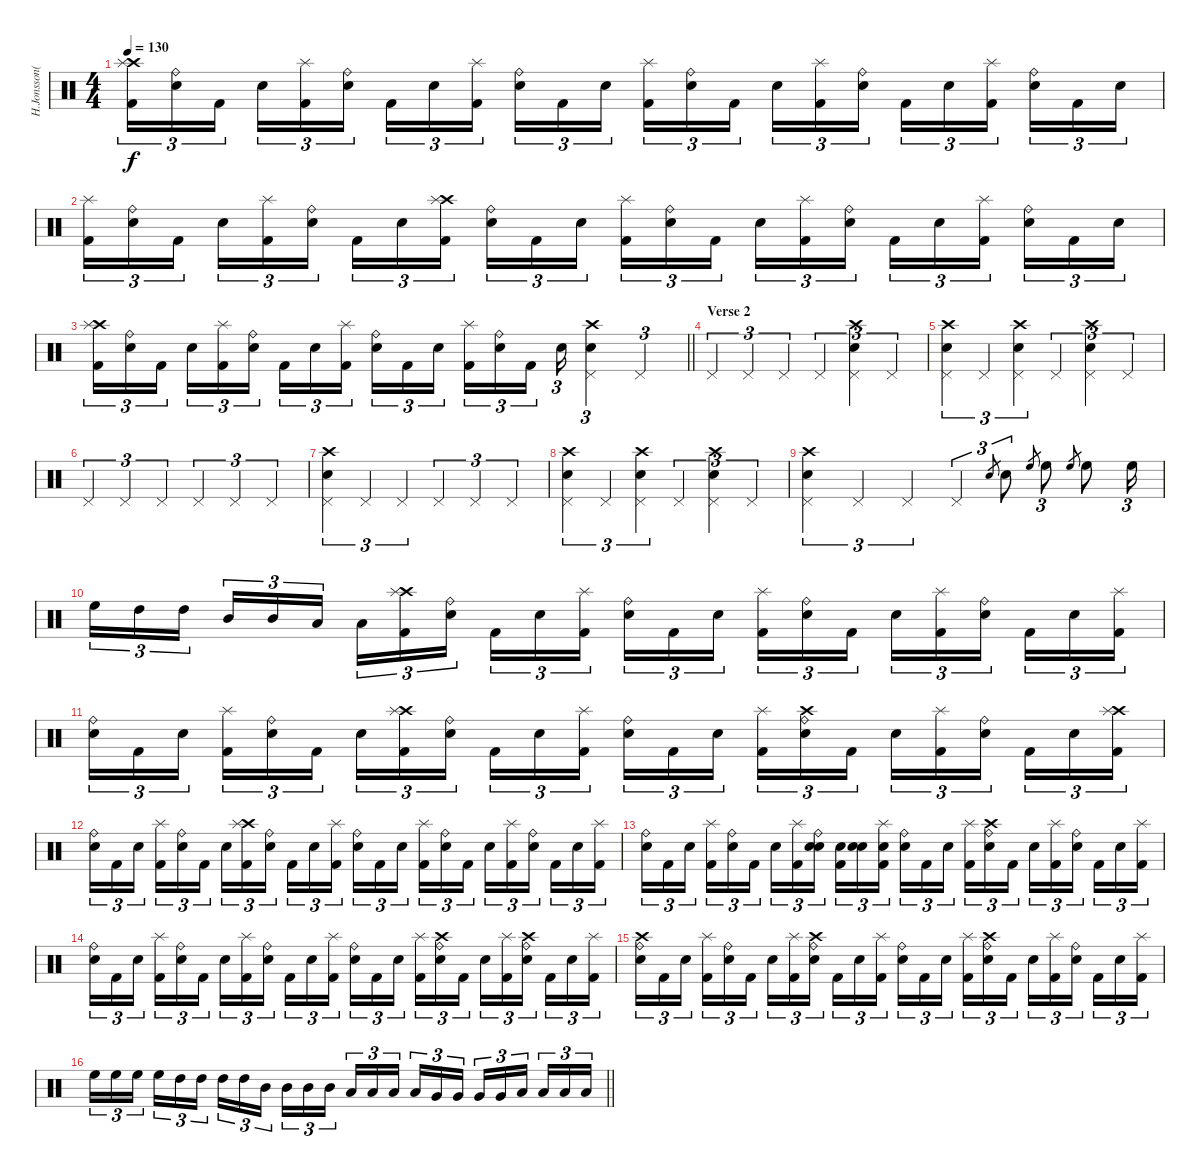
\track ("H.Jonsson(Drums)" "H.Jonsson(") {instrument percussion}
\staff {score}
\articulation defaults
\ts (4 4)
\tempo 130
\clef neutral
\ks c
("Crash high (hit)" "Splash (hit)" "Kick (hit) 2").16{tu (3 2) dy f} ("Ride (bell)" "Electric Snare (hit)").16{tu (3 2)} "Kick (hit) 2".16{tu (3 2) beam splitsecondary} "Electric Snare (hit)".16{tu (3 2)} ("Splash (hit)" "Kick (hit) 2").16{tu (3 2)} ("Ride (bell)" "Electric Snare (hit)").16{tu (3 2)} "Kick (hit) 2".16{tu (3 2)} "Electric Snare (hit)".16{tu (3 2)} ("Splash (hit)" "Kick (hit) 2").16{tu (3 2) beam splitsecondary} ("Ride (bell)" "Electric Snare (hit)").16{tu (3 2)} "Kick (hit) 2".16{tu (3 2)} "Electric Snare (hit)".16{tu (3 2)} ("Splash (hit)" "Kick (hit) 2").16{tu (3 2)} ("Ride (bell)" "Electric Snare (hit)").16{tu (3 2)} "Kick (hit) 2".16{tu (3 2) beam splitsecondary} "Electric Snare (hit)".16{tu (3 2)} ("Splash (hit)" "Kick (hit) 2").16{tu (3 2)} ("Ride (bell)" "Electric Snare (hit)").16{tu (3 2)} "Kick (hit) 2".16{tu (3 2)} "Electric Snare (hit)".16{tu (3 2)} ("Splash (hit)" "Kick (hit) 2").16{tu (3 2) beam splitsecondary} ("Ride (bell)" "Electric Snare (hit)").16{tu (3 2)} "Kick (hit) 2".16{tu (3 2)} "Electric Snare (hit)".16{tu (3 2)} |
("Splash (hit)" "Kick (hit) 2").16{tu (3 2)} ("Ride (bell)" "Electric Snare (hit)").16{tu (3 2)} "Kick (hit) 2".16{tu (3 2) beam splitsecondary} "Electric Snare (hit)".16{tu (3 2)} ("Splash (hit)" "Kick (hit) 2").16{tu (3 2)} ("Ride (bell)" "Electric Snare (hit)").16{tu (3 2)} "Kick (hit) 2".16{tu (3 2)} "Electric Snare (hit)".16{tu (3 2)} ("Crash high (hit)" "Splash (hit)" "Kick (hit) 2").16{tu (3 2) beam splitsecondary} ("Ride (bell)" "Electric Snare (hit)").16{tu (3 2)} "Kick (hit) 2".16{tu (3 2)} "Electric Snare (hit)".16{tu (3 2)} ("Splash (hit)" "Kick (hit) 2").16{tu (3 2)} ("Ride (bell)" "Electric Snare (hit)").16{tu (3 2)} "Kick (hit) 2".16{tu (3 2) beam splitsecondary} "Electric Snare (hit)".16{tu (3 2)} ("Splash (hit)" "Kick (hit) 2").16{tu (3 2)} ("Ride (bell)" "Electric Snare (hit)").16{tu (3 2)} "Kick (hit) 2".16{tu (3 2)} "Electric Snare (hit)".16{tu (3 2)} ("Splash (hit)" "Kick (hit) 2").16{tu (3 2) beam splitsecondary} ("Ride (bell)" "Electric Snare (hit)").16{tu (3 2)} "Kick (hit) 2".16{tu (3 2)} "Electric Snare (hit)".16{tu (3 2)} |
\barLineRight lightlight
("Crash high (hit)" "Splash (hit)" "Kick (hit) 2").16{tu (3 2)} ("Ride (bell)" "Electric Snare (hit)").16{tu (3 2)} "Kick (hit) 2".16{tu (3 2) beam splitsecondary} "Electric Snare (hit)".16{tu (3 2)} ("Splash (hit)" "Kick (hit) 2").16{tu (3 2)} ("Ride (bell)" "Electric Snare (hit)").16{tu (3 2)} "Kick (hit) 2".16{tu (3 2)} "Electric Snare (hit)".16{tu (3 2)} ("Splash (hit)" "Kick (hit) 2").16{tu (3 2) beam splitsecondary} ("Ride (bell)" "Electric Snare (hit)").16{tu (3 2)} "Kick (hit) 2".16{tu (3 2)} "Electric Snare (hit)".16{tu (3 2)} ("Splash (hit)" "Kick (hit) 2").16{tu (3 2)} ("Ride (bell)" "Electric Snare (hit)").16{tu (3 2)} "Kick (hit) 2".16{tu (3 2) beam splitsecondary} "Electric Snare (hit)".16{tu (3 2)} ("Crash high (hit)" "Pedal Hi-Hat (hit)" "Snare (hit) 2").4{tu (3 2)} "Pedal Hi-Hat (hit)".4{tu (3 2)} |
\section ("" "Verse 2")
"Pedal Hi-Hat (hit)".4{tu (3 2)} "Pedal Hi-Hat (hit)".4{tu (3 2)} "Pedal Hi-Hat (hit)".4{tu (3 2)} "Pedal Hi-Hat (hit)".4{tu (3 2)} ("Pedal Hi-Hat (hit)" "Snare (hit) 2" "Crash high (hit)").4{tu (3 2)} "Pedal Hi-Hat (hit)".4{tu (3 2)} |
("Crash high (hit)" "Snare (hit) 2" "Pedal Hi-Hat (hit)").4{tu (3 2)} "Pedal Hi-Hat (hit)".4{tu (3 2)} ("Crash high (hit)" "Snare (hit) 2" "Pedal Hi-Hat (hit)").4{tu (3 2)} "Pedal Hi-Hat (hit)".4{tu (3 2)} ("Crash high (hit)" "Snare (hit) 2" "Pedal Hi-Hat (hit)").4{tu (3 2)} "Pedal Hi-Hat (hit)".4{tu (3 2)} |
"Pedal Hi-Hat (hit)".4{tu (3 2)} "Pedal Hi-Hat (hit)".4{tu (3 2)} "Pedal Hi-Hat (hit)".4{tu (3 2)} "Pedal Hi-Hat (hit)".4{tu (3 2)} "Pedal Hi-Hat (hit)".4{tu (3 2)} "Pedal Hi-Hat (hit)".4{tu (3 2)} |
("Crash high (hit)" "Snare (hit) 2" "Pedal Hi-Hat (hit)").4{tu (3 2)} "Pedal Hi-Hat (hit)".4{tu (3 2)} "Pedal Hi-Hat (hit)".4{tu (3 2)} "Pedal Hi-Hat (hit)".4{tu (3 2)} "Pedal Hi-Hat (hit)".4{tu (3 2)} "Pedal Hi-Hat (hit)".4{tu (3 2)} |
("Crash high (hit)" "Snare (hit) 2" "Pedal Hi-Hat (hit)").4{tu (3 2)} "Pedal Hi-Hat (hit)".4{tu (3 2)} ("Crash high (hit)" "Snare (hit) 2" "Pedal Hi-Hat (hit)").4{tu (3 2)} "Pedal Hi-Hat (hit)".4{tu (3 2)} ("Crash high (hit)" "Snare (hit) 2" "Pedal Hi-Hat (hit)").4{tu (3 2)} "Pedal Hi-Hat (hit)".4{tu (3 2)} |
("Crash high (hit)" "Snare (hit) 2" "Pedal Hi-Hat (hit)").4{tu (3 2)} "Pedal Hi-Hat (hit)".4{tu (3 2)} "Pedal Hi-Hat (hit)".4{tu (3 2)} "Pedal Hi-Hat (hit)".4{tu (3 2)} "Electric Snare (hit)".8{gr} "Electric Snare (hit)".8{tu (3 2)} "High Floor Tom (hit)".8{gr} "High Floor Tom (hit)".8{tu (3 2)} "High Floor Tom (hit)".8{gr} "High Floor Tom (hit)".8 "High Floor Tom (hit)".16{tu (3 2)} |
"High Floor Tom (hit)".16{tu (3 2)} "High Tom (hit)".16{tu (3 2)} "High Tom (hit)".16{tu (3 2) beam splitsecondary} "Mid Tom (hit)".16{tu (3 2)} "Mid Tom (hit)".16{tu (3 2)} "Low Tom (hit)".16{tu (3 2)} "Low Tom (hit)".16{tu (3 2)} ("Crash high (hit)" "Splash (hit)" "Kick (hit) 2").16{tu (3 2)} ("Ride (bell)" "Electric Snare (hit)").16{tu (3 2) beam splitsecondary} "Kick (hit) 2".16{tu (3 2)} "Electric Snare (hit)".16{tu (3 2)} ("Splash (hit)" "Kick (hit) 2").16{tu (3 2)} ("Ride (bell)" "Electric Snare (hit)").16{tu (3 2)} "Kick (hit) 2".16{tu (3 2)} "Electric Snare (hit)".16{tu (3 2) beam splitsecondary} ("Splash (hit)" "Kick (hit) 2").16{tu (3 2)} ("Ride (bell)" "Electric Snare (hit)").16{tu (3 2)} "Kick (hit) 2".16{tu (3 2)} "Electric Snare (hit)".16{tu (3 2)} ("Splash (hit)" "Kick (hit) 2").16{tu (3 2)} ("Ride (bell)" "Electric Snare (hit)").16{tu (3 2) beam splitsecondary} "Kick (hit) 2".16{tu (3 2)} "Electric Snare (hit)".16{tu (3 2)} ("Splash (hit)" "Kick (hit) 2").16{tu (3 2)} |
("Ride (bell)" "Electric Snare (hit)").16{tu (3 2)} "Kick (hit) 2".16{tu (3 2)} "Electric Snare (hit)".16{tu (3 2) beam splitsecondary} ("Splash (hit)" "Kick (hit) 2").16{tu (3 2)} ("Ride (bell)" "Electric Snare (hit)").16{tu (3 2)} "Kick (hit) 2".16{tu (3 2)} "Electric Snare (hit)".16{tu (3 2)} ("Crash high (hit)" "Splash (hit)" "Kick (hit) 2").16{tu (3 2)} ("Ride (bell)" "Electric Snare (hit)").16{tu (3 2) beam splitsecondary} "Kick (hit) 2".16{tu (3 2)} "Electric Snare (hit)".16{tu (3 2)} ("Splash (hit)" "Kick (hit) 2").16{tu (3 2)} ("Ride (bell)" "Electric Snare (hit)").16{tu (3 2)} "Kick (hit) 2".16{tu (3 2)} "Electric Snare (hit)".16{tu (3 2) beam splitsecondary} ("Splash (hit)" "Kick (hit) 2").16{tu (3 2)} ("Crash high (hit)" "Ride (bell)" "Electric Snare (hit)").16{tu (3 2)} "Kick (hit) 2".16{tu (3 2)} "Electric Snare (hit)".16{tu (3 2)} ("Splash (hit)" "Kick (hit) 2").16{tu (3 2)} ("Ride (bell)" "Electric Snare (hit)").16{tu (3 2) beam splitsecondary} "Kick (hit) 2".16{tu (3 2)} "Electric Snare (hit)".16{tu (3 2)} ("Crash high (hit)" "Splash (hit)" "Kick (hit) 2").16{tu (3 2)} |
("Ride (bell)" "Electric Snare (hit)").16{tu (3 2)} "Kick (hit) 2".16{tu (3 2)} "Electric Snare (hit)".16{tu (3 2) beam splitsecondary} ("Splash (hit)" "Kick (hit) 2").16{tu (3 2)} ("Ride (bell)" "Electric Snare (hit)").16{tu (3 2)} "Kick (hit) 2".16{tu (3 2)} "Electric Snare (hit)".16{tu (3 2)} ("Crash high (hit)" "Splash (hit)" "Kick (hit) 2").16{tu (3 2)} ("Ride (bell)" "Electric Snare (hit)").16{tu (3 2) beam splitsecondary} "Kick (hit) 2".16{tu (3 2)} "Electric Snare (hit)".16{tu (3 2)} ("Splash (hit)" "Kick (hit) 2").16{tu (3 2)} ("Ride (bell)" "Electric Snare (hit)").16{tu (3 2)} "Kick (hit) 2".16{tu (3 2)} "Electric Snare (hit)".16{tu (3 2) beam splitsecondary} ("Splash (hit)" "Kick (hit) 2").16{tu (3 2)} ("Ride (bell)" "Electric Snare (hit)").16{tu (3 2)} "Kick (hit) 2".16{tu (3 2)} "Electric Snare (hit)".16{tu (3 2)} ("Splash (hit)" "Kick (hit) 2").16{tu (3 2)} ("Ride (bell)" "Electric Snare (hit)").16{tu (3 2) beam splitsecondary} "Kick (hit) 2".16{tu (3 2)} "Electric Snare (hit)".16{tu (3 2)} ("Splash (hit)" "Kick (hit) 2").16{tu (3 2)} |
("Ride (bell)" "Electric Snare (hit)").16{tu (3 2)} "Kick (hit) 2".16{tu (3 2)} "Electric Snare (hit)".16{tu (3 2) beam splitsecondary} ("Splash (hit)" "Kick (hit) 2").16{tu (3 2)} ("Ride (bell)" "Electric Snare (hit)").16{tu (3 2)} "Kick (hit) 2".16{tu (3 2)} "Electric Snare (hit)".16{tu (3 2)} ("Splash (hit)" "Kick (hit) 2").16{tu (3 2)} ("Snare (hit) 2" "Ride (bell)" "Electric Snare (hit)").16{tu (3 2) beam splitsecondary} ("Snare (hit) 2" "Kick (hit) 2").16{tu (3 2)} ("Snare (hit) 2" "Electric Snare (hit)").16{tu (3 2)} ("Snare (hit) 2" "Splash (hit)" "Kick (hit) 2").16{tu (3 2)} ("Ride (bell)" "Electric Snare (hit)").16{tu (3 2)} "Kick (hit) 2".16{tu (3 2)} "Electric Snare (hit)".16{tu (3 2) beam splitsecondary} ("Splash (hit)" "Kick (hit) 2").16{tu (3 2)} ("Crash high (hit)" "Ride (bell)" "Electric Snare (hit)").16{tu (3 2)} "Kick (hit) 2".16{tu (3 2)} "Electric Snare (hit)".16{tu (3 2)} ("Splash (hit)" "Kick (hit) 2").16{tu (3 2)} ("Ride (bell)" "Electric Snare (hit)").16{tu (3 2) beam splitsecondary} "Kick (hit) 2".16{tu (3 2)} "Electric Snare (hit)".16{tu (3 2)} ("Splash (hit)" "Kick (hit) 2").16{tu (3 2)} |
("Ride (bell)" "Electric Snare (hit)").16{tu (3 2)} "Kick (hit) 2".16{tu (3 2)} "Electric Snare (hit)".16{tu (3 2) beam splitsecondary} ("Splash (hit)" "Kick (hit) 2").16{tu (3 2)} ("Ride (bell)" "Electric Snare (hit)").16{tu (3 2)} "Kick (hit) 2".16{tu (3 2)} "Electric Snare (hit)".16{tu (3 2)} ("Splash (hit)" "Kick (hit) 2").16{tu (3 2)} ("Ride (bell)" "Electric Snare (hit)").16{tu (3 2) beam splitsecondary} "Kick (hit) 2".16{tu (3 2)} "Electric Snare (hit)".16{tu (3 2)} ("Splash (hit)" "Kick (hit) 2").16{tu (3 2)} ("Ride (bell)" "Electric Snare (hit)").16{tu (3 2)} "Kick (hit) 2".16{tu (3 2)} "Electric Snare (hit)".16{tu (3 2) beam splitsecondary} ("Splash (hit)" "Kick (hit) 2").16{tu (3 2)} ("Crash high (hit)" "Ride (bell)" "Electric Snare (hit)").16{tu (3 2)} "Kick (hit) 2".16{tu (3 2)} "Electric Snare (hit)".16{tu (3 2)} ("Splash (hit)" "Kick (hit) 2").16{tu (3 2)} ("Crash high (hit)" "Ride (bell)" "Electric Snare (hit)").16{tu (3 2) beam splitsecondary} "Kick (hit) 2".16{tu (3 2)} "Electric Snare (hit)".16{tu (3 2)} ("Splash (hit)" "Kick (hit) 2").16{tu (3 2)} |
("Crash high (hit)" "Ride (bell)" "Electric Snare (hit)").16{tu (3 2)} "Kick (hit) 2".16{tu (3 2)} "Electric Snare (hit)".16{tu (3 2) beam splitsecondary} ("Splash (hit)" "Kick (hit) 2").16{tu (3 2)} ("Ride (bell)" "Electric Snare (hit)").16{tu (3 2)} "Kick (hit) 2".16{tu (3 2)} "Electric Snare (hit)".16{tu (3 2)} ("Splash (hit)" "Kick (hit) 2").16{tu (3 2)} ("Crash high (hit)" "Ride (bell)" "Electric Snare (hit)").16{tu (3 2) beam splitsecondary} "Kick (hit) 2".16{tu (3 2)} "Electric Snare (hit)".16{tu (3 2)} ("Splash (hit)" "Kick (hit) 2").16{tu (3 2)} ("Ride (bell)" "Electric Snare (hit)").16{tu (3 2)} "Kick (hit) 2".16{tu (3 2)} "Electric Snare (hit)".16{tu (3 2) beam splitsecondary} ("Splash (hit)" "Kick (hit) 2").16{tu (3 2)} ("Crash high (hit)" "Ride (bell)" "Electric Snare (hit)").16{tu (3 2)} "Kick (hit) 2".16{tu (3 2)} "Electric Snare (hit)".16{tu (3 2)} ("Splash (hit)" "Kick (hit) 2").16{tu (3 2)} ("Ride (bell)" "Electric Snare (hit)").16{tu (3 2) beam splitsecondary} "Kick (hit) 2".16{tu (3 2)} "Electric Snare (hit)".16{tu (3 2)} ("Splash (hit)" "Kick (hit) 2").16{tu (3 2)} |
\barLineRight lightlight "High Floor Tom (hit)".16{tu (3 2)} "High Floor Tom (hit)".16{tu (3 2)} "High Floor Tom (hit)".16{tu (3 2) beam splitsecondary} "High Floor Tom (hit)".16{tu (3 2)} "High Tom (hit)".16{tu (3 2)} "High Tom (hit)".16{tu (3 2)} "High Tom (hit)".16{tu (3 2)} "High Tom (hit)".16{tu (3 2)} "Mid Tom (hit)".16{tu (3 2) beam splitsecondary} "Mid Tom (hit)".16{tu (3 2)} "Mid Tom (hit)".16{tu (3 2)} "Mid Tom (hit)".16{tu (3 2)} "Low Tom (hit)".16{tu (3 2)} "Low Tom (hit)".16{tu (3 2)} "Low Tom (hit)".16{tu (3 2) beam splitsecondary} "Low Tom (hit)".16{tu (3 2)} "Very Low Tom (hit)".16{tu (3 2)} "Very Low Tom (hit)".16{tu (3 2)} "Very Low Tom (hit)".16{tu (3 2)} "Very Low Tom (hit)".16{tu (3 2)} "Low Floor Tom (hit)".16{tu (3 2) beam splitsecondary} "Low Floor Tom (hit)".16{tu (3 2)} "Low Floor Tom (hit)".16{tu (3 2)} "Low Floor Tom (hit)".16{tu (3 2)}
